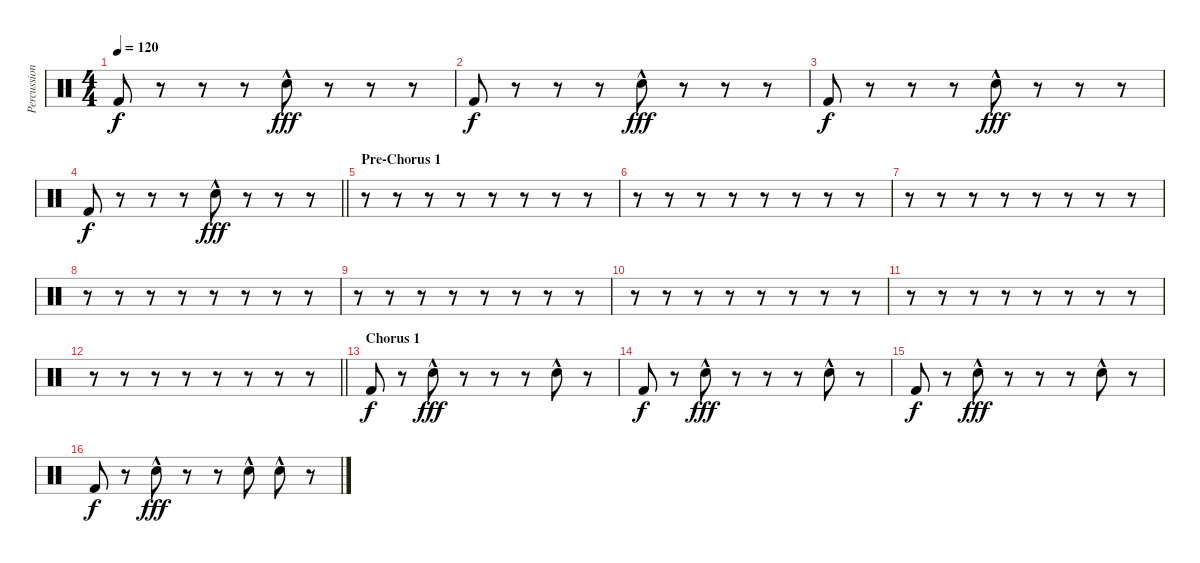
\track ("Percussion" "Percussion") {instrument percussion}
\staff {score}
\articulation defaults
\ts (4 4)
\tempo 120
\clef neutral
\ks c "Kick (hit) 2".8{dy f}
r.8 r.8 r.8 "Snare (hit) 2"{hac}.8{dy fff} r.8 r.8 r.8 |
"Kick (hit) 2".8{dy f} r.8 r.8 r.8 "Snare (hit) 2"{hac}.8{dy fff} r.8 r.8 r.8 |
"Kick (hit) 2".8{dy f} r.8 r.8 r.8 "Snare (hit) 2"{hac}.8{dy fff} r.8 r.8 r.8 |
\barLineRight lightlight "Kick (hit) 2".8{dy f}
r.8 r.8 r.8 "Snare (hit) 2"{hac}.8{dy fff} r.8 r.8 r.8 |
\section ("" "Pre-Chorus 1")
r.8 r.8 r.8 r.8 r.8 r.8 r.8 r.8 |
r.8 r.8 r.8 r.8 r.8 r.8 r.8 r.8 |
r.8 r.8 r.8 r.8 r.8 r.8 r.8 r.8 |
r.8 r.8 r.8 r.8 r.8 r.8 r.8 r.8 |
r.8 r.8 r.8 r.8 r.8 r.8 r.8 r.8 |
r.8 r.8 r.8 r.8 r.8 r.8 r.8 r.8 |
r.8 r.8 r.8 r.8 r.8 r.8 r.8 r.8 |
\barLineRight lightlight
r.8 r.8 r.8 r.8 r.8 r.8 r.8 r.8 |
\section ("" "Chorus 1")
"Kick (hit) 2".8{dy f} r.8 "Snare (hit) 2"{hac}.8{dy fff} r.8 r.8 r.8 "Snare (hit) 2"{hac}.8 r.8 |
"Kick (hit) 2".8{dy f} r.8 "Snare (hit) 2"{hac}.8{dy fff} r.8 r.8 r.8 "Snare (hit) 2"{hac}.8 r.8 |
"Kick (hit) 2".8{dy f} r.8 "Snare (hit) 2"{hac}.8{dy fff} r.8 r.8 r.8 "Snare (hit) 2"{hac}.8 r.8 |
"Kick (hit) 2".8{dy f} r.8 "Snare (hit) 2"{hac}.8{dy fff} r.8 r.8 "Snare (hit) 2"{hac}.8 "Snare (hit) 2"{hac}.8 r.8
